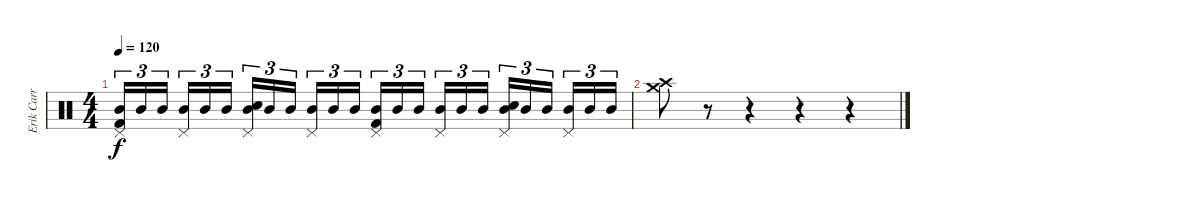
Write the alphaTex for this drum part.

\track ("Erik Carr / Drums" "Erik Carr ") {instrument percussion}
\staff {score}
\articulation defaults
\ts (4 4)
\tempo 120
\clef neutral
\ks c
("Pedal Hi-Hat (hit)" "Mid Tom (hit)" "Kick (hit) 2").16{tu (3 2) dy f} "Mid Tom (hit)".16{tu (3 2)} "Mid Tom (hit)".16{tu (3 2)} ("Pedal Hi-Hat (hit)" "Mid Tom (hit)").16{tu (3 2)} "Mid Tom (hit)".16{tu (3 2)} "Mid Tom (hit)".16{tu (3 2)} ("Pedal Hi-Hat (hit)" "Mid Tom (hit)" "Electric Snare (hit)").16{tu (3 2)} "Mid Tom (hit)".16{tu (3 2)} "Mid Tom (hit)".16{tu (3 2)} ("Pedal Hi-Hat (hit)" "Mid Tom (hit)").16{tu (3 2)} "Mid Tom (hit)".16{tu (3 2)} "Mid Tom (hit)".16{tu (3 2)} ("Pedal Hi-Hat (hit)" "Mid Tom (hit)" "Kick (hit) 2").16{tu (3 2)} "Mid Tom (hit)".16{tu (3 2)} "Mid Tom (hit)".16{tu (3 2)} ("Pedal Hi-Hat (hit)" "Mid Tom (hit)").16{tu (3 2)} "Mid Tom (hit)".16{tu (3 2)} "Mid Tom (hit)".16{tu (3 2)} ("Pedal Hi-Hat (hit)" "Mid Tom (hit)" "Electric Snare (hit)").16{tu (3 2)} "Mid Tom (hit)".16{tu (3 2)} "Mid Tom (hit)".16{tu (3 2)} ("Pedal Hi-Hat (hit)" "Mid Tom (hit)").16{tu (3 2)} "Mid Tom (hit)".16{tu (3 2)} "Mid Tom (hit)".16{tu (3 2)} |
("Crash high (hit)" "Crash medium (hit)").8 r.8 r.4 r.4 r.4
